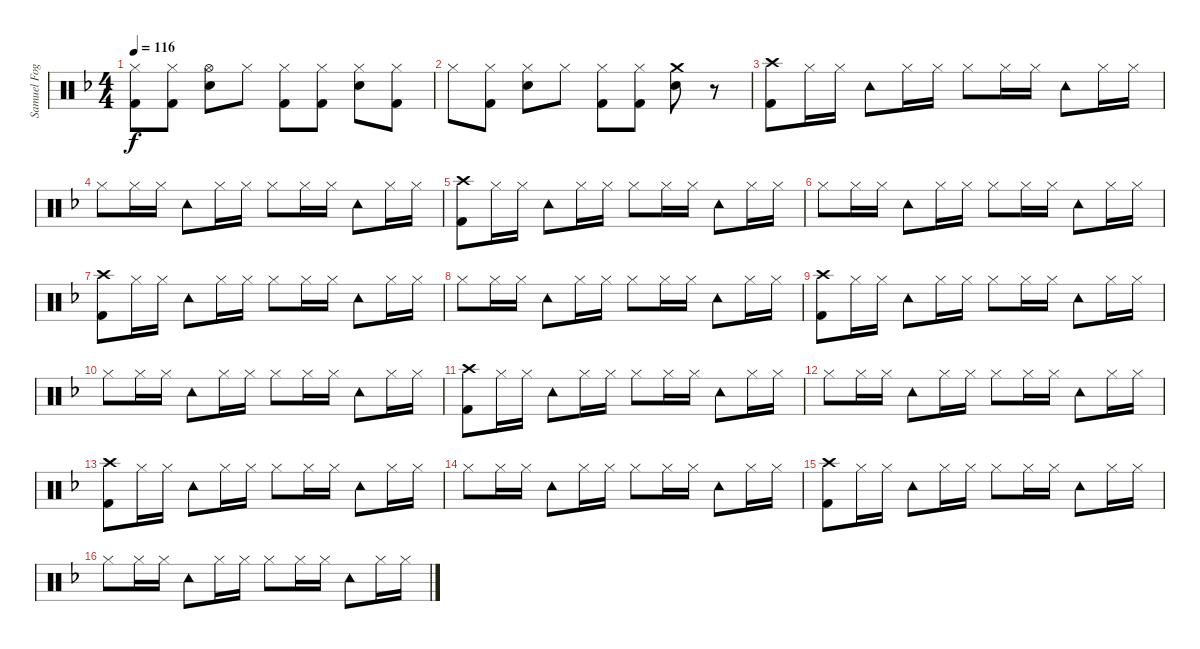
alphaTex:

\track ("Samuel Fogarino" "Samuel Fog") {instrument percussion}
\staff {score}
\articulation defaults
\ts (4 4)
\tempo 116
\clef neutral
\ks f
("Hi-Hat (closed)" "Kick (hit) 2").8{dy f} ("Hi-Hat (closed)" "Kick (hit) 2").8 ("Hi-Hat (open)" "Snare (hit) 2").8 "Hi-Hat (closed)".8 ("Hi-Hat (closed)" "Kick (hit) 2").8 ("Hi-Hat (closed)" "Kick (hit) 2").8 ("Hi-Hat (closed)" "Snare (hit) 2").8 ("Hi-Hat (closed)" "Kick (hit) 2").8 |
"Hi-Hat (closed)".8 ("Hi-Hat (closed)" "Kick (hit) 2").8 ("Hi-Hat (closed)" "Snare (hit) 2").8 "Hi-Hat (closed)".8 ("Hi-Hat (closed)" "Kick (hit) 2").8 ("Hi-Hat (closed)" "Kick (hit) 2").8 ("Crash medium (hit)" "Snare (hit) 2").8 r.8 |
("Crash high (hit)" "Kick (hit) 2").8 "Hi-Hat (closed)".16 "Hi-Hat (closed)".16 "Tambourine (hit)".8 "Hi-Hat (closed)".16 "Hi-Hat (closed)".16 "Hi-Hat (closed)".8 "Hi-Hat (closed)".16 "Hi-Hat (closed)".16 "Tambourine (hit)".8 "Hi-Hat (closed)".16 "Hi-Hat (closed)".16 |
"Hi-Hat (closed)".8 "Hi-Hat (closed)".16 "Hi-Hat (closed)".16 "Tambourine (hit)".8 "Hi-Hat (closed)".16 "Hi-Hat (closed)".16 "Hi-Hat (closed)".8 "Hi-Hat (closed)".16 "Hi-Hat (closed)".16 "Tambourine (hit)".8 "Hi-Hat (closed)".16 "Hi-Hat (closed)".16 |
("Crash high (hit)" "Kick (hit) 2").8 "Hi-Hat (closed)".16 "Hi-Hat (closed)".16 "Tambourine (hit)".8 "Hi-Hat (closed)".16 "Hi-Hat (closed)".16 "Hi-Hat (closed)".8 "Hi-Hat (closed)".16 "Hi-Hat (closed)".16 "Tambourine (hit)".8 "Hi-Hat (closed)".16 "Hi-Hat (closed)".16 |
"Hi-Hat (closed)".8 "Hi-Hat (closed)".16 "Hi-Hat (closed)".16 "Tambourine (hit)".8 "Hi-Hat (closed)".16 "Hi-Hat (closed)".16 "Hi-Hat (closed)".8 "Hi-Hat (closed)".16 "Hi-Hat (closed)".16 "Tambourine (hit)".8 "Hi-Hat (closed)".16 "Hi-Hat (closed)".16 |
("Crash high (hit)" "Kick (hit) 2").8 "Hi-Hat (closed)".16 "Hi-Hat (closed)".16 "Tambourine (hit)".8 "Hi-Hat (closed)".16 "Hi-Hat (closed)".16 "Hi-Hat (closed)".8 "Hi-Hat (closed)".16 "Hi-Hat (closed)".16 "Tambourine (hit)".8 "Hi-Hat (closed)".16 "Hi-Hat (closed)".16 |
"Hi-Hat (closed)".8 "Hi-Hat (closed)".16 "Hi-Hat (closed)".16 "Tambourine (hit)".8 "Hi-Hat (closed)".16 "Hi-Hat (closed)".16 "Hi-Hat (closed)".8 "Hi-Hat (closed)".16 "Hi-Hat (closed)".16 "Tambourine (hit)".8 "Hi-Hat (closed)".16 "Hi-Hat (closed)".16 |
("Crash high (hit)" "Kick (hit) 2").8 "Hi-Hat (closed)".16 "Hi-Hat (closed)".16 "Tambourine (hit)".8 "Hi-Hat (closed)".16 "Hi-Hat (closed)".16 "Hi-Hat (closed)".8 "Hi-Hat (closed)".16 "Hi-Hat (closed)".16 "Tambourine (hit)".8 "Hi-Hat (closed)".16 "Hi-Hat (closed)".16 |
"Hi-Hat (closed)".8 "Hi-Hat (closed)".16 "Hi-Hat (closed)".16 "Tambourine (hit)".8 "Hi-Hat (closed)".16 "Hi-Hat (closed)".16 "Hi-Hat (closed)".8 "Hi-Hat (closed)".16 "Hi-Hat (closed)".16 "Tambourine (hit)".8 "Hi-Hat (closed)".16 "Hi-Hat (closed)".16 |
("Crash high (hit)" "Kick (hit) 2").8 "Hi-Hat (closed)".16 "Hi-Hat (closed)".16 "Tambourine (hit)".8 "Hi-Hat (closed)".16 "Hi-Hat (closed)".16 "Hi-Hat (closed)".8 "Hi-Hat (closed)".16 "Hi-Hat (closed)".16 "Tambourine (hit)".8 "Hi-Hat (closed)".16 "Hi-Hat (closed)".16 |
"Hi-Hat (closed)".8 "Hi-Hat (closed)".16 "Hi-Hat (closed)".16 "Tambourine (hit)".8 "Hi-Hat (closed)".16 "Hi-Hat (closed)".16 "Hi-Hat (closed)".8 "Hi-Hat (closed)".16 "Hi-Hat (closed)".16 "Tambourine (hit)".8 "Hi-Hat (closed)".16 "Hi-Hat (closed)".16 |
("Crash high (hit)" "Kick (hit) 2").8 "Hi-Hat (closed)".16 "Hi-Hat (closed)".16 "Tambourine (hit)".8 "Hi-Hat (closed)".16 "Hi-Hat (closed)".16 "Hi-Hat (closed)".8 "Hi-Hat (closed)".16 "Hi-Hat (closed)".16 "Tambourine (hit)".8 "Hi-Hat (closed)".16 "Hi-Hat (closed)".16 |
"Hi-Hat (closed)".8 "Hi-Hat (closed)".16 "Hi-Hat (closed)".16 "Tambourine (hit)".8 "Hi-Hat (closed)".16 "Hi-Hat (closed)".16 "Hi-Hat (closed)".8 "Hi-Hat (closed)".16 "Hi-Hat (closed)".16 "Tambourine (hit)".8 "Hi-Hat (closed)".16 "Hi-Hat (closed)".16 |
("Crash high (hit)" "Kick (hit) 2").8 "Hi-Hat (closed)".16 "Hi-Hat (closed)".16 "Tambourine (hit)".8 "Hi-Hat (closed)".16 "Hi-Hat (closed)".16 "Hi-Hat (closed)".8 "Hi-Hat (closed)".16 "Hi-Hat (closed)".16 "Tambourine (hit)".8 "Hi-Hat (closed)".16 "Hi-Hat (closed)".16 |
"Hi-Hat (closed)".8 "Hi-Hat (closed)".16 "Hi-Hat (closed)".16 "Tambourine (hit)".8 "Hi-Hat (closed)".16 "Hi-Hat (closed)".16 "Hi-Hat (closed)".8 "Hi-Hat (closed)".16 "Hi-Hat (closed)".16 "Tambourine (hit)".8 "Hi-Hat (closed)".16 "Hi-Hat (closed)".16
